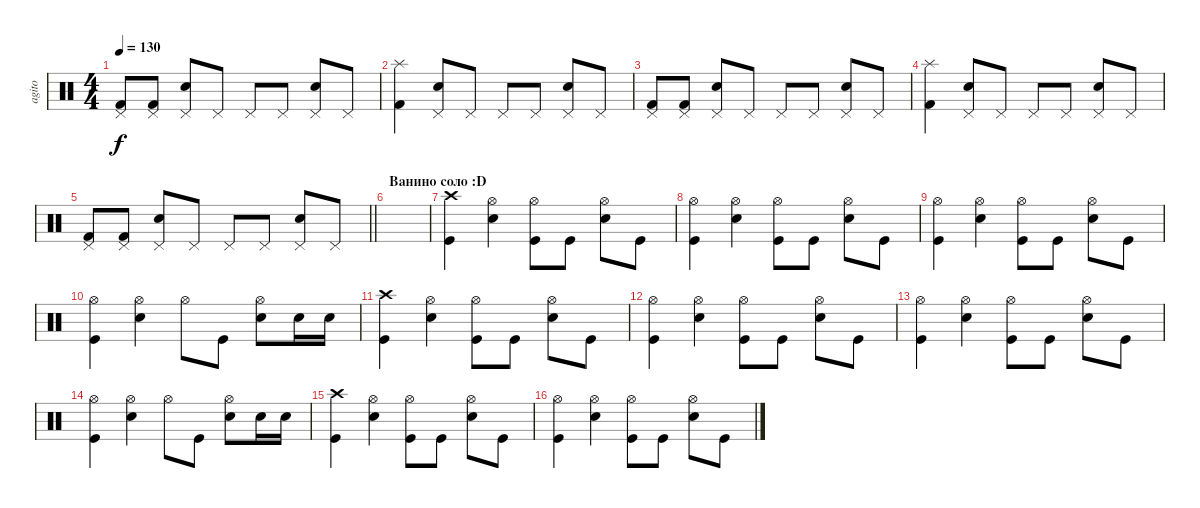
\track ("agito" "agito") {instrument percussion}
\staff {score}
\articulation defaults
\ts (4 4)
\tempo 130
\clef neutral
\ks c
("Pedal Hi-Hat (hit)" "Kick (hit) 2").8{dy f} ("Pedal Hi-Hat (hit)" "Kick (hit) 2").8 ("Pedal Hi-Hat (hit)" "Electric Snare (hit)").8 "Pedal Hi-Hat (hit)".8 "Pedal Hi-Hat (hit)".8 "Pedal Hi-Hat (hit)".8 ("Pedal Hi-Hat (hit)" "Electric Snare (hit)").8 "Pedal Hi-Hat (hit)".8 |
("Splash (hit)" "Kick (hit) 2").4 ("Pedal Hi-Hat (hit)" "Electric Snare (hit)").8 "Pedal Hi-Hat (hit)".8 "Pedal Hi-Hat (hit)".8 "Pedal Hi-Hat (hit)".8 ("Pedal Hi-Hat (hit)" "Electric Snare (hit)").8 "Pedal Hi-Hat (hit)".8 |
("Pedal Hi-Hat (hit)" "Kick (hit) 2").8 ("Pedal Hi-Hat (hit)" "Kick (hit) 2").8 ("Pedal Hi-Hat (hit)" "Electric Snare (hit)").8 "Pedal Hi-Hat (hit)".8 "Pedal Hi-Hat (hit)".8 "Pedal Hi-Hat (hit)".8 ("Pedal Hi-Hat (hit)" "Electric Snare (hit)").8 "Pedal Hi-Hat (hit)".8 |
("Splash (hit)" "Kick (hit) 2").4 ("Pedal Hi-Hat (hit)" "Electric Snare (hit)").8 "Pedal Hi-Hat (hit)".8 "Pedal Hi-Hat (hit)".8 "Pedal Hi-Hat (hit)".8 ("Pedal Hi-Hat (hit)" "Electric Snare (hit)").8 "Pedal Hi-Hat (hit)".8 |
\barLineRight lightlight
("Pedal Hi-Hat (hit)" "Kick (hit) 2").8 ("Pedal Hi-Hat (hit)" "Kick (hit) 2").8 ("Pedal Hi-Hat (hit)" "Electric Snare (hit)").8 "Pedal Hi-Hat (hit)".8 "Pedal Hi-Hat (hit)".8 "Pedal Hi-Hat (hit)".8 ("Pedal Hi-Hat (hit)" "Electric Snare (hit)").8 "Pedal Hi-Hat (hit)".8 |
\section ("" "Ванино соло :D")
|
("Crash high (hit)" "Kick (hit)").4 ("Hi-Hat (open)" "Snare (hit) 2").4 ("Hi-Hat (open)" "Kick (hit)").8 "Kick (hit)".8 ("Hi-Hat (open)" "Snare (hit) 2").8 "Kick (hit)".8 |
("Hi-Hat (open)" "Kick (hit)").4 ("Hi-Hat (open)" "Snare (hit) 2").4 ("Hi-Hat (open)" "Kick (hit)").8 "Kick (hit)".8 ("Hi-Hat (open)" "Snare (hit) 2").8 "Kick (hit)".8 |
("Hi-Hat (open)" "Kick (hit)").4 ("Hi-Hat (open)" "Snare (hit) 2").4 ("Hi-Hat (open)" "Kick (hit)").8 "Kick (hit)".8 ("Hi-Hat (open)" "Snare (hit) 2").8 "Kick (hit)".8 |
("Hi-Hat (open)" "Kick (hit)").4 ("Hi-Hat (open)" "Snare (hit) 2").4 "Hi-Hat (open)".8 "Kick (hit)".8 ("Hi-Hat (open)" "Snare (hit) 2").8 "Snare (hit) 2".16 "Snare (hit) 2".16 |
("Crash high (hit)" "Kick (hit)").4 ("Hi-Hat (open)" "Snare (hit) 2").4 ("Hi-Hat (open)" "Kick (hit)").8 "Kick (hit)".8 ("Hi-Hat (open)" "Snare (hit) 2").8 "Kick (hit)".8 |
("Hi-Hat (open)" "Kick (hit)").4 ("Hi-Hat (open)" "Snare (hit) 2").4 ("Hi-Hat (open)" "Kick (hit)").8 "Kick (hit)".8 ("Hi-Hat (open)" "Snare (hit) 2").8 "Kick (hit)".8 |
("Hi-Hat (open)" "Kick (hit)").4 ("Hi-Hat (open)" "Snare (hit) 2").4 ("Hi-Hat (open)" "Kick (hit)").8 "Kick (hit)".8 ("Hi-Hat (open)" "Snare (hit) 2").8 "Kick (hit)".8 |
("Hi-Hat (open)" "Kick (hit)").4 ("Hi-Hat (open)" "Snare (hit) 2").4 "Hi-Hat (open)".8 "Kick (hit)".8 ("Hi-Hat (open)" "Snare (hit) 2").8 "Snare (hit) 2".16 "Snare (hit) 2".16 |
("Crash high (hit)" "Kick (hit)").4 ("Hi-Hat (open)" "Snare (hit) 2").4 ("Hi-Hat (open)" "Kick (hit)").8 "Kick (hit)".8 ("Hi-Hat (open)" "Snare (hit) 2").8 "Kick (hit)".8 |
("Hi-Hat (open)" "Kick (hit)").4 ("Hi-Hat (open)" "Snare (hit) 2").4 ("Hi-Hat (open)" "Kick (hit)").8 "Kick (hit)".8 ("Hi-Hat (open)" "Snare (hit) 2").8 "Kick (hit)".8
